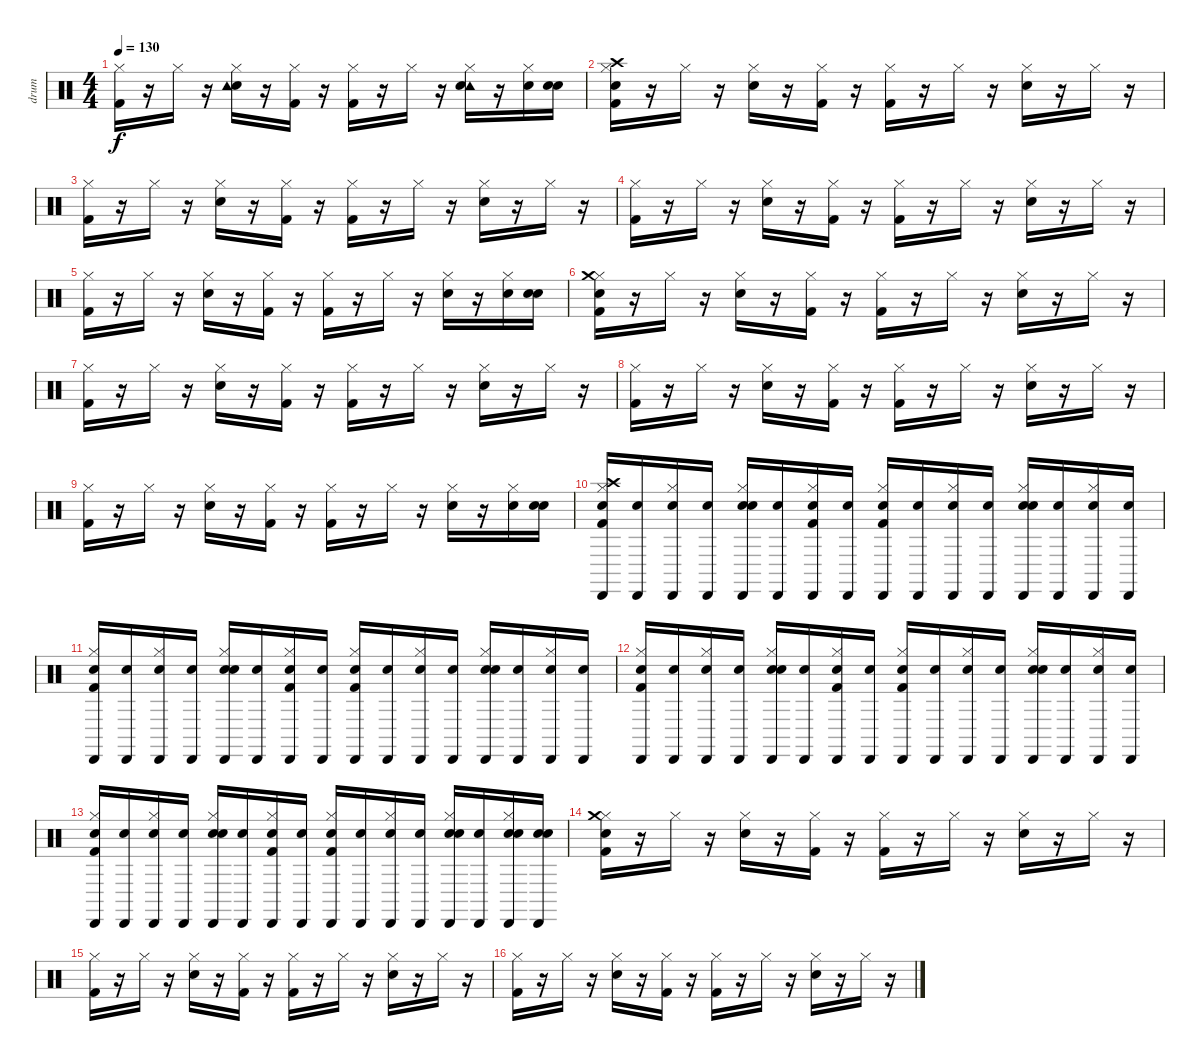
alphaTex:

\track ("drum" "drum") {instrument percussion}
\staff {score}
\articulation defaults
\ts (4 4)
\tempo 130
\clef neutral
\ks c
("Hi-Hat (closed)" "Kick (hit) 2").16{dy f} r.16 "Hi-Hat (closed)".16 r.16 ("Snare (hit) 2" "Hi-Hat (closed)" "Tambourine (hit)").16 r.16 ("Kick (hit) 2" "Hi-Hat (closed)").16 r.16 ("Hi-Hat (closed)" "Kick (hit) 2").16 r.16 "Hi-Hat (closed)".16 r.16 ("Tambourine (hit)" "Snare (hit) 2" "Hi-Hat (closed)").16 r.16 ("Hi-Hat (closed)" "Snare (hit) 2").16 ("Snare (hit)" "Snare (hit) 2").16 |
("Snare (hit)" "Kick (hit) 2" "Hi-Hat (closed)" "Crash high (hit)").16 r.16 "Hi-Hat (closed)".16 r.16 ("Snare (hit) 2" "Hi-Hat (closed)").16 r.16 ("Hi-Hat (closed)" "Kick (hit) 2").16 r.16 ("Kick (hit) 2" "Hi-Hat (closed)").16 r.16 "Hi-Hat (closed)".16 r.16 ("Hi-Hat (closed)" "Snare (hit) 2").16 r.16 "Hi-Hat (closed)".16 r.16 |
("Kick (hit) 2" "Hi-Hat (closed)").16 r.16 "Hi-Hat (closed)".16 r.16 ("Hi-Hat (closed)" "Snare (hit) 2").16 r.16 ("Hi-Hat (closed)" "Kick (hit) 2").16 r.16 ("Hi-Hat (closed)" "Kick (hit) 2").16 r.16 "Hi-Hat (closed)".16 r.16 ("Hi-Hat (closed)" "Snare (hit) 2").16 r.16 "Hi-Hat (closed)".16 r.16 |
("Kick (hit) 2" "Hi-Hat (closed)").16 r.16 "Hi-Hat (closed)".16 r.16 ("Hi-Hat (closed)" "Snare (hit) 2").16 r.16 ("Kick (hit) 2" "Hi-Hat (closed)").16 r.16 ("Hi-Hat (closed)" "Kick (hit) 2").16 r.16 "Hi-Hat (closed)".16 r.16 ("Hi-Hat (closed)" "Snare (hit) 2").16 r.16 "Hi-Hat (closed)".16 r.16 |
("Kick (hit) 2" "Hi-Hat (closed)").16 r.16 "Hi-Hat (closed)".16 r.16 ("Hi-Hat (closed)" "Snare (hit) 2").16 r.16 ("Kick (hit) 2" "Hi-Hat (closed)").16 r.16 ("Kick (hit) 2" "Hi-Hat (closed)").16 r.16 "Hi-Hat (closed)".16 r.16 ("Hi-Hat (closed)" "Snare (hit) 2").16 r.16 ("Snare (hit) 2" "Hi-Hat (closed)").16 ("Snare (hit)" "Snare (hit) 2").16 |
("Snare (hit)" "Hi-Hat (closed)" "Kick (hit) 2" "Crash medium (hit)").16 r.16 "Hi-Hat (closed)".16 r.16 ("Hi-Hat (closed)" "Snare (hit) 2").16 r.16 ("Hi-Hat (closed)" "Kick (hit) 2").16 r.16 ("Hi-Hat (closed)" "Kick (hit) 2").16 r.16 "Hi-Hat (closed)".16 r.16 ("Snare (hit) 2" "Hi-Hat (closed)").16 r.16 "Hi-Hat (closed)".16 r.16 |
("Hi-Hat (closed)" "Kick (hit) 2").16 r.16 "Hi-Hat (closed)".16 r.16 ("Hi-Hat (closed)" "Snare (hit) 2").16 r.16 ("Hi-Hat (closed)" "Kick (hit) 2").16 r.16 ("Kick (hit) 2" "Hi-Hat (closed)").16 r.16 "Hi-Hat (closed)".16 r.16 ("Hi-Hat (closed)" "Snare (hit) 2").16 r.16 "Hi-Hat (closed)".16 r.16 |
("Kick (hit) 2" "Hi-Hat (closed)").16 r.16 "Hi-Hat (closed)".16 r.16 ("Hi-Hat (closed)" "Snare (hit) 2").16 r.16 ("Hi-Hat (closed)" "Kick (hit) 2").16 r.16 ("Kick (hit) 2" "Hi-Hat (closed)").16 r.16 "Hi-Hat (closed)".16 r.16 ("Hi-Hat (closed)" "Snare (hit) 2").16 r.16 "Hi-Hat (closed)".16 r.16 |
("Hi-Hat (closed)" "Kick (hit) 2").16 r.16 "Hi-Hat (closed)".16 r.16 ("Hi-Hat (closed)" "Snare (hit) 2").16 r.16 ("Hi-Hat (closed)" "Kick (hit) 2").16 r.16 ("Hi-Hat (closed)" "Kick (hit) 2").16 r.16 "Hi-Hat (closed)".16 r.16 ("Hi-Hat (closed)" "Snare (hit) 2").16 r.16 ("Hi-Hat (closed)" "Snare (hit) 2").16 ("Snare (hit)" "Snare (hit) 2").16 |
("Snare (hit)" "Hi-Hat (closed)" "Kick (hit) 2" "Cabasa (hit)" "Crash high (hit)").16 ("Snare (hit)" "Cabasa (hit)").16 ("Snare (hit)" "Cabasa (hit)" "Hi-Hat (closed)").16 ("Snare (hit)" "Cabasa (hit)").16 ("Snare (hit)" "Cabasa (hit)" "Snare (hit) 2" "Hi-Hat (closed)").16 ("Snare (hit)" "Cabasa (hit)").16 ("Snare (hit)" "Kick (hit) 2" "Hi-Hat (closed)" "Cabasa (hit)").16 ("Snare (hit)" "Cabasa (hit)").16 ("Snare (hit)" "Hi-Hat (closed)" "Kick (hit) 2" "Cabasa (hit)").16 ("Snare (hit)" "Cabasa (hit)").16 ("Snare (hit)" "Cabasa (hit)" "Hi-Hat (closed)").16 ("Snare (hit)" "Cabasa (hit)").16 ("Snare (hit)" "Cabasa (hit)" "Hi-Hat (closed)" "Snare (hit) 2").16 ("Snare (hit)" "Cabasa (hit)").16 ("Snare (hit)" "Hi-Hat (closed)" "Cabasa (hit)").16 ("Snare (hit)" "Cabasa (hit)").16 |
("Snare (hit)" "Hi-Hat (closed)" "Kick (hit) 2" "Cabasa (hit)").16 ("Snare (hit)" "Cabasa (hit)").16 ("Snare (hit)" "Hi-Hat (closed)" "Cabasa (hit)").16 ("Snare (hit)" "Cabasa (hit)").16 ("Snare (hit)" "Hi-Hat (closed)" "Snare (hit) 2" "Cabasa (hit)").16 ("Snare (hit)" "Cabasa (hit)").16 ("Snare (hit)" "Kick (hit) 2" "Cabasa (hit)" "Hi-Hat (closed)").16 ("Snare (hit)" "Cabasa (hit)").16 ("Snare (hit)" "Hi-Hat (closed)" "Kick (hit) 2" "Cabasa (hit)").16 ("Snare (hit)" "Cabasa (hit)").16 ("Snare (hit)" "Hi-Hat (closed)" "Cabasa (hit)").16 ("Snare (hit)" "Cabasa (hit)").16 ("Snare (hit)" "Cabasa (hit)" "Hi-Hat (closed)" "Snare (hit) 2").16 ("Snare (hit)" "Cabasa (hit)").16 ("Snare (hit)" "Cabasa (hit)" "Hi-Hat (closed)").16 ("Snare (hit)" "Cabasa (hit)").16 |
("Snare (hit)" "Cabasa (hit)" "Kick (hit) 2" "Hi-Hat (closed)").16 ("Snare (hit)" "Cabasa (hit)").16 ("Snare (hit)" "Cabasa (hit)" "Hi-Hat (closed)").16 ("Snare (hit)" "Cabasa (hit)").16 ("Snare (hit)" "Hi-Hat (closed)" "Snare (hit) 2" "Cabasa (hit)").16 ("Snare (hit)" "Cabasa (hit)").16 ("Snare (hit)" "Kick (hit) 2" "Cabasa (hit)" "Hi-Hat (closed)").16 ("Snare (hit)" "Cabasa (hit)").16 ("Snare (hit)" "Cabasa (hit)" "Kick (hit) 2" "Hi-Hat (closed)").16 ("Snare (hit)" "Cabasa (hit)").16 ("Snare (hit)" "Cabasa (hit)" "Hi-Hat (closed)").16 ("Snare (hit)" "Cabasa (hit)").16 ("Snare (hit)" "Cabasa (hit)" "Snare (hit) 2" "Hi-Hat (closed)").16 ("Snare (hit)" "Cabasa (hit)").16 ("Snare (hit)" "Hi-Hat (closed)" "Cabasa (hit)").16 ("Snare (hit)" "Cabasa (hit)").16 |
("Snare (hit)" "Kick (hit) 2" "Cabasa (hit)" "Hi-Hat (closed)").16 ("Snare (hit)" "Cabasa (hit)").16 ("Snare (hit)" "Cabasa (hit)" "Hi-Hat (closed)").16 ("Snare (hit)" "Cabasa (hit)").16 ("Snare (hit)" "Hi-Hat (closed)" "Snare (hit) 2" "Cabasa (hit)").16 ("Snare (hit)" "Cabasa (hit)").16 ("Snare (hit)" "Kick (hit) 2" "Cabasa (hit)" "Hi-Hat (closed)").16 ("Snare (hit)" "Cabasa (hit)").16 ("Snare (hit)" "Hi-Hat (closed)" "Cabasa (hit)" "Kick (hit) 2").16 ("Snare (hit)" "Cabasa (hit)").16 ("Snare (hit)" "Hi-Hat (closed)" "Cabasa (hit)").16 ("Snare (hit)" "Cabasa (hit)").16 ("Snare (hit)" "Hi-Hat (closed)" "Snare (hit) 2" "Cabasa (hit)").16 ("Snare (hit)" "Cabasa (hit)").16 ("Snare (hit)" "Snare (hit) 2" "Hi-Hat (closed)" "Cabasa (hit)").16 ("Snare (hit)" "Snare (hit) 2" "Cabasa (hit)").16 |
("Snare (hit)" "Kick (hit) 2" "Hi-Hat (closed)" "Crash medium (hit)").16 r.16 "Hi-Hat (closed)".16 r.16 ("Hi-Hat (closed)" "Snare (hit) 2").16 r.16 ("Kick (hit) 2" "Hi-Hat (closed)").16 r.16 ("Kick (hit) 2" "Hi-Hat (closed)").16 r.16 "Hi-Hat (closed)".16 r.16 ("Snare (hit) 2" "Hi-Hat (closed)").16 r.16 "Hi-Hat (closed)".16 r.16 |
("Kick (hit) 2" "Hi-Hat (closed)").16 r.16 "Hi-Hat (closed)".16 r.16 ("Hi-Hat (closed)" "Snare (hit) 2").16 r.16 ("Kick (hit) 2" "Hi-Hat (closed)").16 r.16 ("Hi-Hat (closed)" "Kick (hit) 2").16 r.16 "Hi-Hat (closed)".16 r.16 ("Hi-Hat (closed)" "Snare (hit) 2").16 r.16 "Hi-Hat (closed)".16 r.16 |
("Hi-Hat (closed)" "Kick (hit) 2").16 r.16 "Hi-Hat (closed)".16 r.16 ("Snare (hit) 2" "Hi-Hat (closed)").16 r.16 ("Hi-Hat (closed)" "Kick (hit) 2").16 r.16 ("Hi-Hat (closed)" "Kick (hit) 2").16 r.16 "Hi-Hat (closed)".16 r.16 ("Snare (hit) 2" "Hi-Hat (closed)").16 r.16 "Hi-Hat (closed)".16 r.16
